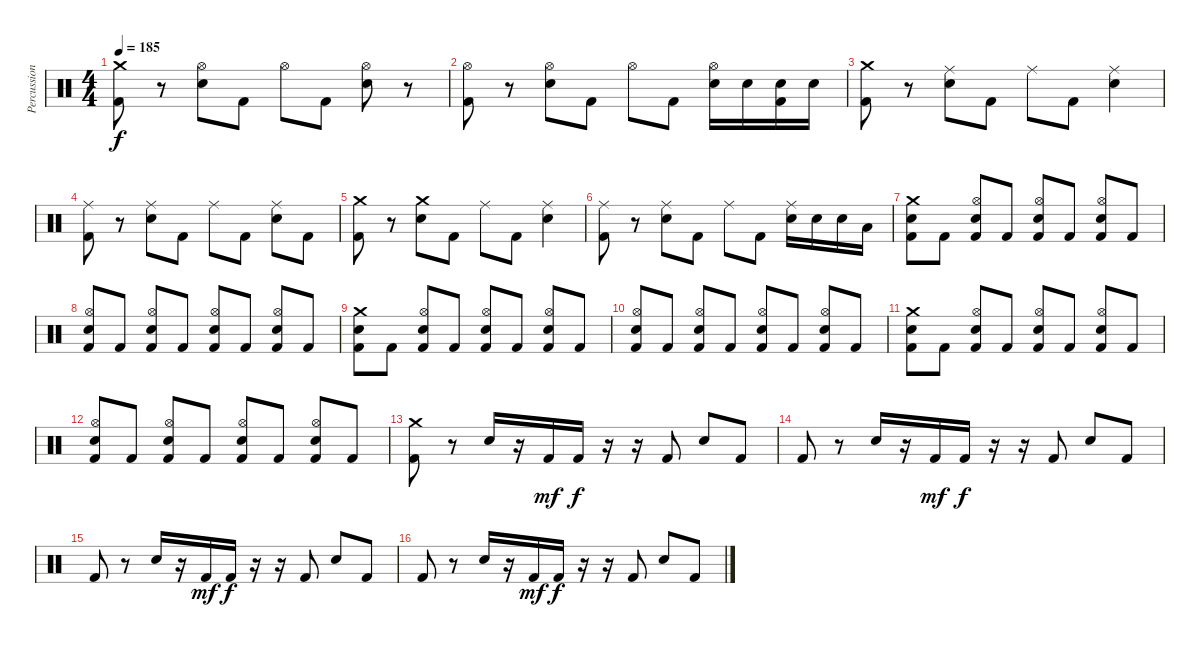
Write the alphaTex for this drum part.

\track ("Percussions" "Percussion") {instrument percussion}
\staff {score}
\articulation defaults
\ts (4 4)
\tempo 185
\clef neutral
\ks c
("Crash medium (hit)" "Kick (hit) 2").8{dy f} r.8 ("Hi-Hat (open)" "Electric Snare (hit)").8 "Kick (hit) 2".8 "Hi-Hat (open)".8 "Kick (hit) 2".8 ("Hi-Hat (open)" "Electric Snare (hit)").8 r.8 |
("Hi-Hat (open)" "Kick (hit) 2").8 r.8 ("Hi-Hat (open)" "Electric Snare (hit)").8 "Kick (hit) 2".8 "Hi-Hat (open)".8 "Kick (hit) 2".8 ("Hi-Hat (open)" "Electric Snare (hit)").16 "Electric Snare (hit)".16 ("Electric Snare (hit)" "Kick (hit) 2").16 "Electric Snare (hit)".16 |
("Crash medium (hit)" "Kick (hit) 2").8 r.8 ("Ride (middle)" "Electric Snare (hit)").8 "Kick (hit) 2".8 "Ride (middle)".8 "Kick (hit) 2".8 ("Ride (middle)" "Electric Snare (hit)").4 |
("Ride (middle)" "Kick (hit) 2").8 r.8 ("Ride (middle)" "Electric Snare (hit)").8 "Kick (hit) 2".8 "Ride (middle)".8 "Kick (hit) 2".8 ("Ride (middle)" "Electric Snare (hit)").8 "Kick (hit) 2".8 |
("Crash medium (hit)" "Kick (hit) 2").8 r.8 ("Crash medium (hit)" "Electric Snare (hit)").8 "Kick (hit) 2".8 "Ride (middle)".8 "Kick (hit) 2".8 ("Ride (middle)" "Electric Snare (hit)").4 |
("Ride (middle)" "Kick (hit) 2").8 r.8 ("Ride (middle)" "Electric Snare (hit)").8 "Kick (hit) 2".8 "Ride (middle)".8 "Kick (hit) 2".8 ("Ride (middle)" "Electric Snare (hit)").16 "Electric Snare (hit)".16 "Electric Snare (hit)".16 "Low Tom (hit)".16 |
("Crash medium (hit)" "Electric Snare (hit)" "Kick (hit) 2").8 "Kick (hit) 2".8 ("Hi-Hat (open)" "Electric Snare (hit)" "Kick (hit) 2").8 "Kick (hit) 2".8 ("Hi-Hat (open)" "Electric Snare (hit)" "Kick (hit) 2").8 "Kick (hit) 2".8 ("Hi-Hat (open)" "Electric Snare (hit)" "Kick (hit) 2").8 "Kick (hit) 2".8 |
("Hi-Hat (open)" "Electric Snare (hit)" "Kick (hit) 2").8 "Kick (hit) 2".8 ("Hi-Hat (open)" "Electric Snare (hit)" "Kick (hit) 2").8 "Kick (hit) 2".8 ("Hi-Hat (open)" "Electric Snare (hit)" "Kick (hit) 2").8 "Kick (hit) 2".8 ("Hi-Hat (open)" "Electric Snare (hit)" "Kick (hit) 2").8 "Kick (hit) 2".8 |
("Crash medium (hit)" "Electric Snare (hit)" "Kick (hit) 2").8 "Kick (hit) 2".8 ("Hi-Hat (open)" "Electric Snare (hit)" "Kick (hit) 2").8 "Kick (hit) 2".8 ("Hi-Hat (open)" "Electric Snare (hit)" "Kick (hit) 2").8 "Kick (hit) 2".8 ("Hi-Hat (open)" "Electric Snare (hit)" "Kick (hit) 2").8 "Kick (hit) 2".8 |
("Hi-Hat (open)" "Electric Snare (hit)" "Kick (hit) 2").8 "Kick (hit) 2".8 ("Hi-Hat (open)" "Electric Snare (hit)" "Kick (hit) 2").8 "Kick (hit) 2".8 ("Hi-Hat (open)" "Electric Snare (hit)" "Kick (hit) 2").8 "Kick (hit) 2".8 ("Hi-Hat (open)" "Electric Snare (hit)" "Kick (hit) 2").8 "Kick (hit) 2".8 |
("Crash medium (hit)" "Electric Snare (hit)" "Kick (hit) 2").8 "Kick (hit) 2".8 ("Hi-Hat (open)" "Electric Snare (hit)" "Kick (hit) 2").8 "Kick (hit) 2".8 ("Hi-Hat (open)" "Electric Snare (hit)" "Kick (hit) 2").8 "Kick (hit) 2".8 ("Hi-Hat (open)" "Electric Snare (hit)" "Kick (hit) 2").8 "Kick (hit) 2".8 |
("Hi-Hat (open)" "Electric Snare (hit)" "Kick (hit) 2").8 "Kick (hit) 2".8 ("Hi-Hat (open)" "Electric Snare (hit)" "Kick (hit) 2").8 "Kick (hit) 2".8 ("Hi-Hat (open)" "Electric Snare (hit)" "Kick (hit) 2").8 "Kick (hit) 2".8 ("Hi-Hat (open)" "Electric Snare (hit)" "Kick (hit) 2").8 "Kick (hit) 2".8 |
("Crash medium (hit)" "Kick (hit) 2").8 r.8 "Electric Snare (hit)".16 r.16 "Kick (hit) 2".16{dy mf} "Kick (hit) 2".16{dy f} r.16 r.16 "Kick (hit) 2".8 "Electric Snare (hit)".8 "Kick (hit) 2".8 |
"Kick (hit) 2".8 r.8 "Electric Snare (hit)".16 r.16 "Kick (hit) 2".16{dy mf} "Kick (hit) 2".16{dy f} r.16 r.16 "Kick (hit) 2".8 "Electric Snare (hit)".8 "Kick (hit) 2".8 |
"Kick (hit) 2".8 r.8 "Electric Snare (hit)".16 r.16 "Kick (hit) 2".16{dy mf} "Kick (hit) 2".16{dy f} r.16 r.16 "Kick (hit) 2".8 "Electric Snare (hit)".8 "Kick (hit) 2".8 |
"Kick (hit) 2".8 r.8 "Electric Snare (hit)".16 r.16 "Kick (hit) 2".16{dy mf} "Kick (hit) 2".16{dy f} r.16 r.16 "Kick (hit) 2".8 "Electric Snare (hit)".8 "Kick (hit) 2".8
